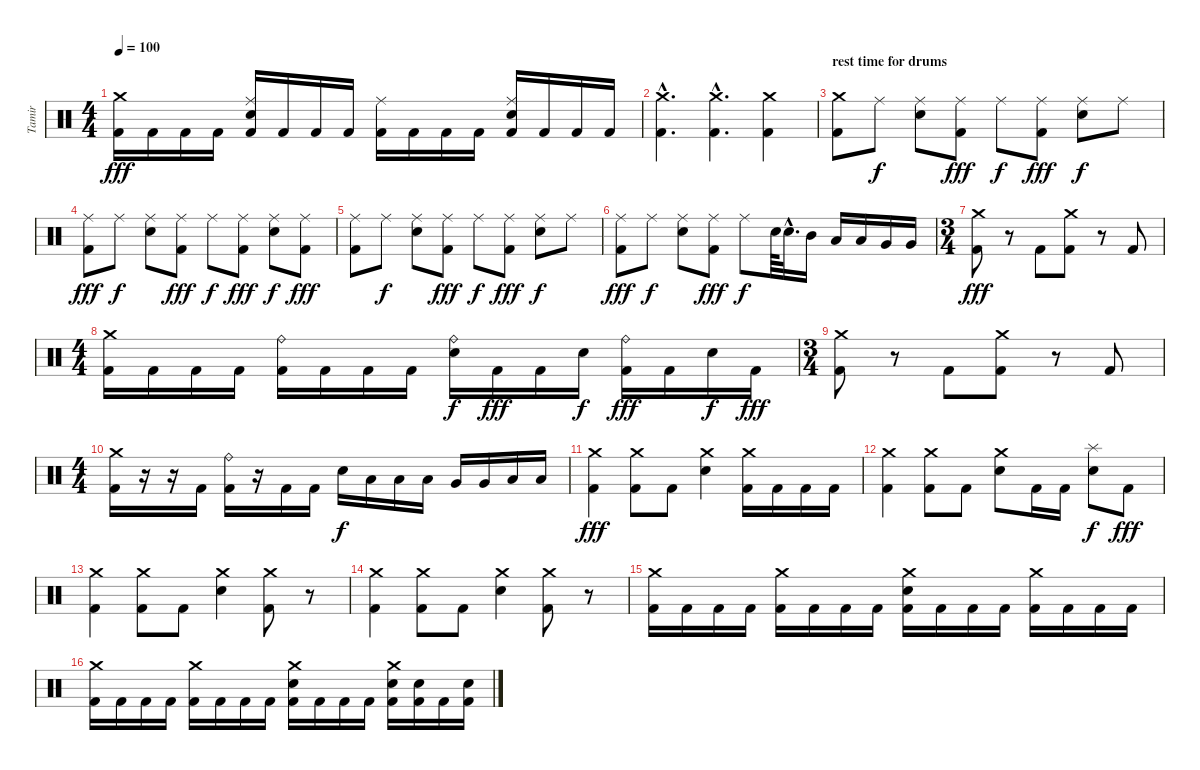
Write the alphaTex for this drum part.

\track ("Tamir" "Tamir") {instrument percussion}
\staff {score}
\articulation defaults
\ts (4 4)
\tempo 100
\clef neutral
\ks c
("Crash medium (hit)" "Kick (hit) 2").16{dy fff} "Kick (hit) 2".16 "Kick (hit) 2".16 "Kick (hit) 2".16 ("Ride (middle)" "Electric Snare (hit)" "Kick (hit) 2").16 "Kick (hit) 2".16 "Kick (hit) 2".16 "Kick (hit) 2".16 ("Ride (middle)" "Kick (hit) 2").16 "Kick (hit) 2".16 "Kick (hit) 2".16 "Kick (hit) 2".16 ("Ride (middle)" "Electric Snare (hit)" "Kick (hit) 2").16 "Kick (hit) 2".16 "Kick (hit) 2".16 "Kick (hit) 2".16 |
("Crash medium (hit)"{hac} "Kick (hit) 2"{hac}).4{d} ("Crash medium (hit)"{hac} "Kick (hit) 2"{hac}).4{d} ("Crash medium (hit)" "Kick (hit) 2").4 |
\section ("" "rest time for drums")
("Crash medium (hit)" "Kick (hit) 2").8 "Ride (middle)".8{dy f} ("Ride (middle)" "Electric Snare (hit)").8 ("Ride (middle)" "Kick (hit) 2").8{dy fff} "Ride (middle)".8{dy f} ("Ride (middle)" "Kick (hit) 2").8{dy fff} ("Ride (middle)" "Electric Snare (hit)").8{dy f} "Ride (middle)".8 |
("Ride (middle)" "Kick (hit) 2").8{dy fff} "Ride (middle)".8{dy f} ("Ride (middle)" "Electric Snare (hit)").8 ("Ride (middle)" "Kick (hit) 2").8{dy fff} "Ride (middle)".8{dy f} ("Ride (middle)" "Kick (hit) 2").8{dy fff} ("Ride (middle)" "Electric Snare (hit)").8{dy f} ("Ride (middle)" "Kick (hit) 2").8{dy fff} |
("Ride (middle)" "Kick (hit) 2").8 "Ride (middle)".8{dy f} ("Ride (middle)" "Electric Snare (hit)").8 ("Ride (middle)" "Kick (hit) 2").8{dy fff} "Ride (middle)".8{dy f} ("Ride (middle)" "Kick (hit) 2").8{dy fff} ("Ride (middle)" "Electric Snare (hit)").8{dy f} "Ride (middle)".8 |
("Ride (middle)" "Kick (hit) 2").8{dy fff} "Ride (middle)".8{dy f} ("Ride (middle)" "Electric Snare (hit)").8 ("Ride (middle)" "Kick (hit) 2").8{dy fff} "Ride (middle)".8{dy f} "Electric Snare (hit)".64 "Electric Snare (hit)"{hac}.32{d} "Mid Tom (hit)".16 "Low Tom (hit)".16 "Low Tom (hit)".16 "Very Low Tom (hit)".16 "Very Low Tom (hit)".16 |
\ts (3 4)
("Crash medium (hit)" "Kick (hit) 2").8{dy fff} r.8 "Kick (hit) 2".8 ("Crash medium (hit)" "Kick (hit) 2").8 r.8 "Kick (hit) 2".8 |
\ts (4 4)
("Crash medium (hit)" "Kick (hit) 2").16 "Kick (hit) 2".16 "Kick (hit) 2".16 "Kick (hit) 2".16 ("Ride (bell)" "Kick (hit) 2").16 "Kick (hit) 2".16 "Kick (hit) 2".16 "Kick (hit) 2".16 ("Ride (bell)" "Electric Snare (hit)").16{dy f} "Kick (hit) 2".16{dy fff} "Kick (hit) 2".16 "Electric Snare (hit)".16{dy f} ("Ride (bell)" "Kick (hit) 2").16{dy fff} "Kick (hit) 2".16 "Electric Snare (hit)".16{dy f} "Kick (hit) 2".16{dy fff} |
\ts (3 4)
("Crash medium (hit)" "Kick (hit) 2").8 r.8 "Kick (hit) 2".8 ("Crash medium (hit)" "Kick (hit) 2").8 r.8 "Kick (hit) 2".8 |
\ts (4 4)
("Crash medium (hit)" "Kick (hit) 2").16 r.16 r.16 "Kick (hit) 2".16 ("Ride (bell)" "Kick (hit) 2").16 r.16 "Kick (hit) 2".16 "Kick (hit) 2".16 "Electric Snare (hit)".16{dy f} "Low Tom (hit)".16 "Low Tom (hit)".16 "Low Tom (hit)".16 "Very Low Tom (hit)".16 "Very Low Tom (hit)".16 "Low Floor Tom (hit)".16 "Low Floor Tom (hit)".16 |
("Crash medium (hit)" "Kick (hit) 2").4{dy fff} ("Crash medium (hit)" "Kick (hit) 2").8 "Kick (hit) 2".8 ("Crash medium (hit)" "Electric Snare (hit)").4 ("Crash medium (hit)" "Kick (hit) 2").16 "Kick (hit) 2".16 "Kick (hit) 2".16 "Kick (hit) 2".16 |
("Crash medium (hit)" "Kick (hit) 2").4 ("Crash medium (hit)" "Kick (hit) 2").8 "Kick (hit) 2".8 ("Crash medium (hit)" "Electric Snare (hit)").8 "Kick (hit) 2".16 "Kick (hit) 2".16 ("Splash (hit)" "Electric Snare (hit)").8{dy f} "Kick (hit) 2".8{dy fff} |
("Crash medium (hit)" "Kick (hit) 2").4 ("Crash medium (hit)" "Kick (hit) 2").8 "Kick (hit) 2".8 ("Crash medium (hit)" "Electric Snare (hit)").4 ("Crash medium (hit)" "Kick (hit) 2").8 r.8 |
("Crash medium (hit)" "Kick (hit) 2").4 ("Crash medium (hit)" "Kick (hit) 2").8 "Kick (hit) 2".8 ("Crash medium (hit)" "Electric Snare (hit)").4 ("Crash medium (hit)" "Kick (hit) 2").8 r.8 |
("Crash medium (hit)" "Kick (hit) 2").16 "Kick (hit) 2".16 "Kick (hit) 2".16 "Kick (hit) 2".16 ("Crash medium (hit)" "Kick (hit) 2").16 "Kick (hit) 2".16 "Kick (hit) 2".16 "Kick (hit) 2".16 ("Crash medium (hit)" "Electric Snare (hit)" "Kick (hit) 2").16 "Kick (hit) 2".16 "Kick (hit) 2".16 "Kick (hit) 2".16 ("Crash medium (hit)" "Kick (hit) 2").16 "Kick (hit) 2".16 "Kick (hit) 2".16 "Kick (hit) 2".16 |
("Crash medium (hit)" "Kick (hit) 2").16 "Kick (hit) 2".16 "Kick (hit) 2".16 "Kick (hit) 2".16 ("Crash medium (hit)" "Kick (hit) 2").16 "Kick (hit) 2".16 "Kick (hit) 2".16 "Kick (hit) 2".16 ("Crash medium (hit)" "Electric Snare (hit)" "Kick (hit) 2").16 "Kick (hit) 2".16 "Kick (hit) 2".16 "Kick (hit) 2".16 ("Crash medium (hit)" "Electric Snare (hit)" "Kick (hit) 2").16 ("Electric Snare (hit)" "Kick (hit) 2").16 "Kick (hit) 2".16 ("Electric Snare (hit)" "Kick (hit) 2").16
